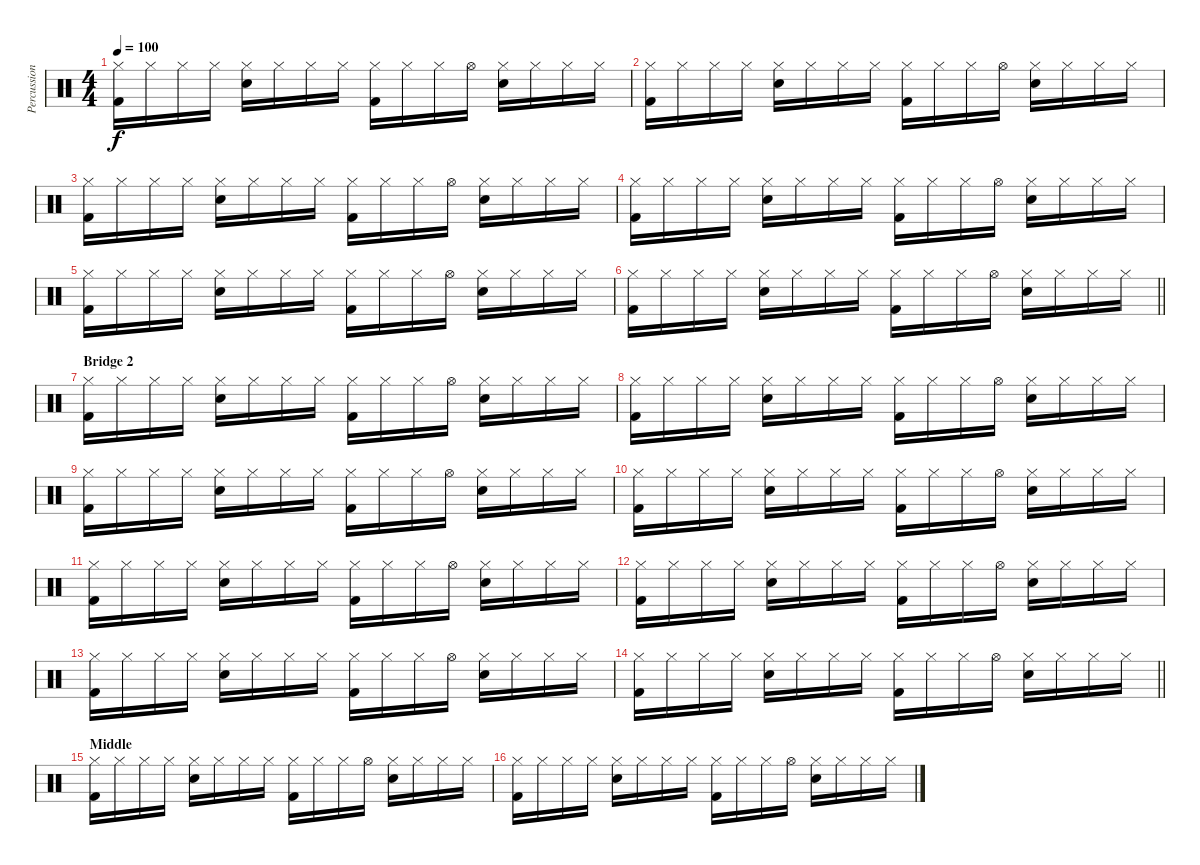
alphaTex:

\track ("Percussion" "Percussion") {instrument percussion}
\staff {score}
\articulation defaults
\ts (4 4)
\tempo 100
\clef neutral
\ks c
("Kick (hit) 2" "Hi-Hat (closed)").16{dy f} "Hi-Hat (closed)".16 "Hi-Hat (closed)".16 "Hi-Hat (closed)".16 ("Electric Snare (hit)" "Hi-Hat (closed)").16 "Hi-Hat (closed)".16 "Hi-Hat (closed)".16 "Hi-Hat (closed)".16 ("Kick (hit) 2" "Hi-Hat (closed)").16 "Hi-Hat (closed)".16 "Hi-Hat (closed)".16 "Hi-Hat (open)".16 ("Hi-Hat (closed)" "Electric Snare (hit)").16 "Hi-Hat (closed)".16 "Hi-Hat (closed)".16 "Hi-Hat (closed)".16 |
("Kick (hit) 2" "Hi-Hat (closed)").16 "Hi-Hat (closed)".16 "Hi-Hat (closed)".16 "Hi-Hat (closed)".16 ("Electric Snare (hit)" "Hi-Hat (closed)").16 "Hi-Hat (closed)".16 "Hi-Hat (closed)".16 "Hi-Hat (closed)".16 ("Kick (hit) 2" "Hi-Hat (closed)").16 "Hi-Hat (closed)".16 "Hi-Hat (closed)".16 "Hi-Hat (open)".16 ("Hi-Hat (closed)" "Electric Snare (hit)").16 "Hi-Hat (closed)".16 "Hi-Hat (closed)".16 "Hi-Hat (closed)".16 |
("Kick (hit) 2" "Hi-Hat (closed)").16 "Hi-Hat (closed)".16 "Hi-Hat (closed)".16 "Hi-Hat (closed)".16 ("Electric Snare (hit)" "Hi-Hat (closed)").16 "Hi-Hat (closed)".16 "Hi-Hat (closed)".16 "Hi-Hat (closed)".16 ("Kick (hit) 2" "Hi-Hat (closed)").16 "Hi-Hat (closed)".16 "Hi-Hat (closed)".16 "Hi-Hat (open)".16 ("Hi-Hat (closed)" "Electric Snare (hit)").16 "Hi-Hat (closed)".16 "Hi-Hat (closed)".16 "Hi-Hat (closed)".16 |
("Kick (hit) 2" "Hi-Hat (closed)").16 "Hi-Hat (closed)".16 "Hi-Hat (closed)".16 "Hi-Hat (closed)".16 ("Electric Snare (hit)" "Hi-Hat (closed)").16 "Hi-Hat (closed)".16 "Hi-Hat (closed)".16 "Hi-Hat (closed)".16 ("Kick (hit) 2" "Hi-Hat (closed)").16 "Hi-Hat (closed)".16 "Hi-Hat (closed)".16 "Hi-Hat (open)".16 ("Hi-Hat (closed)" "Electric Snare (hit)").16 "Hi-Hat (closed)".16 "Hi-Hat (closed)".16 "Hi-Hat (closed)".16 |
("Kick (hit) 2" "Hi-Hat (closed)").16 "Hi-Hat (closed)".16 "Hi-Hat (closed)".16 "Hi-Hat (closed)".16 ("Electric Snare (hit)" "Hi-Hat (closed)").16 "Hi-Hat (closed)".16 "Hi-Hat (closed)".16 "Hi-Hat (closed)".16 ("Kick (hit) 2" "Hi-Hat (closed)").16 "Hi-Hat (closed)".16 "Hi-Hat (closed)".16 "Hi-Hat (open)".16 ("Hi-Hat (closed)" "Electric Snare (hit)").16 "Hi-Hat (closed)".16 "Hi-Hat (closed)".16 "Hi-Hat (closed)".16 |
\barLineRight lightlight
("Kick (hit) 2" "Hi-Hat (closed)").16 "Hi-Hat (closed)".16 "Hi-Hat (closed)".16 "Hi-Hat (closed)".16 ("Electric Snare (hit)" "Hi-Hat (closed)").16 "Hi-Hat (closed)".16 "Hi-Hat (closed)".16 "Hi-Hat (closed)".16 ("Kick (hit) 2" "Hi-Hat (closed)").16 "Hi-Hat (closed)".16 "Hi-Hat (closed)".16 "Hi-Hat (open)".16 ("Hi-Hat (closed)" "Electric Snare (hit)").16 "Hi-Hat (closed)".16 "Hi-Hat (closed)".16 "Hi-Hat (closed)".16 |
\section ("" "Bridge 2")
("Kick (hit) 2" "Hi-Hat (closed)").16 "Hi-Hat (closed)".16 "Hi-Hat (closed)".16 "Hi-Hat (closed)".16 ("Electric Snare (hit)" "Hi-Hat (closed)").16 "Hi-Hat (closed)".16 "Hi-Hat (closed)".16 "Hi-Hat (closed)".16 ("Kick (hit) 2" "Hi-Hat (closed)").16 "Hi-Hat (closed)".16 "Hi-Hat (closed)".16 "Hi-Hat (open)".16 ("Hi-Hat (closed)" "Electric Snare (hit)").16 "Hi-Hat (closed)".16 "Hi-Hat (closed)".16 "Hi-Hat (closed)".16 |
("Kick (hit) 2" "Hi-Hat (closed)").16 "Hi-Hat (closed)".16 "Hi-Hat (closed)".16 "Hi-Hat (closed)".16 ("Electric Snare (hit)" "Hi-Hat (closed)").16 "Hi-Hat (closed)".16 "Hi-Hat (closed)".16 "Hi-Hat (closed)".16 ("Kick (hit) 2" "Hi-Hat (closed)").16 "Hi-Hat (closed)".16 "Hi-Hat (closed)".16 "Hi-Hat (open)".16 ("Hi-Hat (closed)" "Electric Snare (hit)").16 "Hi-Hat (closed)".16 "Hi-Hat (closed)".16 "Hi-Hat (closed)".16 |
("Kick (hit) 2" "Hi-Hat (closed)").16 "Hi-Hat (closed)".16 "Hi-Hat (closed)".16 "Hi-Hat (closed)".16 ("Electric Snare (hit)" "Hi-Hat (closed)").16 "Hi-Hat (closed)".16 "Hi-Hat (closed)".16 "Hi-Hat (closed)".16 ("Kick (hit) 2" "Hi-Hat (closed)").16 "Hi-Hat (closed)".16 "Hi-Hat (closed)".16 "Hi-Hat (open)".16 ("Hi-Hat (closed)" "Electric Snare (hit)").16 "Hi-Hat (closed)".16 "Hi-Hat (closed)".16 "Hi-Hat (closed)".16 |
("Kick (hit) 2" "Hi-Hat (closed)").16 "Hi-Hat (closed)".16 "Hi-Hat (closed)".16 "Hi-Hat (closed)".16 ("Electric Snare (hit)" "Hi-Hat (closed)").16 "Hi-Hat (closed)".16 "Hi-Hat (closed)".16 "Hi-Hat (closed)".16 ("Kick (hit) 2" "Hi-Hat (closed)").16 "Hi-Hat (closed)".16 "Hi-Hat (closed)".16 "Hi-Hat (open)".16 ("Hi-Hat (closed)" "Electric Snare (hit)").16 "Hi-Hat (closed)".16 "Hi-Hat (closed)".16 "Hi-Hat (closed)".16 |
("Kick (hit) 2" "Hi-Hat (closed)").16 "Hi-Hat (closed)".16 "Hi-Hat (closed)".16 "Hi-Hat (closed)".16 ("Electric Snare (hit)" "Hi-Hat (closed)").16 "Hi-Hat (closed)".16 "Hi-Hat (closed)".16 "Hi-Hat (closed)".16 ("Kick (hit) 2" "Hi-Hat (closed)").16 "Hi-Hat (closed)".16 "Hi-Hat (closed)".16 "Hi-Hat (open)".16 ("Hi-Hat (closed)" "Electric Snare (hit)").16 "Hi-Hat (closed)".16 "Hi-Hat (closed)".16 "Hi-Hat (closed)".16 |
("Kick (hit) 2" "Hi-Hat (closed)").16 "Hi-Hat (closed)".16 "Hi-Hat (closed)".16 "Hi-Hat (closed)".16 ("Electric Snare (hit)" "Hi-Hat (closed)").16 "Hi-Hat (closed)".16 "Hi-Hat (closed)".16 "Hi-Hat (closed)".16 ("Kick (hit) 2" "Hi-Hat (closed)").16 "Hi-Hat (closed)".16 "Hi-Hat (closed)".16 "Hi-Hat (open)".16 ("Hi-Hat (closed)" "Electric Snare (hit)").16 "Hi-Hat (closed)".16 "Hi-Hat (closed)".16 "Hi-Hat (closed)".16 |
("Kick (hit) 2" "Hi-Hat (closed)").16 "Hi-Hat (closed)".16 "Hi-Hat (closed)".16 "Hi-Hat (closed)".16 ("Electric Snare (hit)" "Hi-Hat (closed)").16 "Hi-Hat (closed)".16 "Hi-Hat (closed)".16 "Hi-Hat (closed)".16 ("Kick (hit) 2" "Hi-Hat (closed)").16 "Hi-Hat (closed)".16 "Hi-Hat (closed)".16 "Hi-Hat (open)".16 ("Hi-Hat (closed)" "Electric Snare (hit)").16 "Hi-Hat (closed)".16 "Hi-Hat (closed)".16 "Hi-Hat (closed)".16 |
\barLineRight lightlight
("Kick (hit) 2" "Hi-Hat (closed)").16 "Hi-Hat (closed)".16 "Hi-Hat (closed)".16 "Hi-Hat (closed)".16 ("Electric Snare (hit)" "Hi-Hat (closed)").16 "Hi-Hat (closed)".16 "Hi-Hat (closed)".16 "Hi-Hat (closed)".16 ("Kick (hit) 2" "Hi-Hat (closed)").16 "Hi-Hat (closed)".16 "Hi-Hat (closed)".16 "Hi-Hat (open)".16 ("Hi-Hat (closed)" "Electric Snare (hit)").16 "Hi-Hat (closed)".16 "Hi-Hat (closed)".16 "Hi-Hat (closed)".16 |
\section ("" "Middle")
("Kick (hit) 2" "Hi-Hat (closed)").16 "Hi-Hat (closed)".16 "Hi-Hat (closed)".16 "Hi-Hat (closed)".16 ("Electric Snare (hit)" "Hi-Hat (closed)").16 "Hi-Hat (closed)".16 "Hi-Hat (closed)".16 "Hi-Hat (closed)".16 ("Kick (hit) 2" "Hi-Hat (closed)").16 "Hi-Hat (closed)".16 "Hi-Hat (closed)".16 "Hi-Hat (open)".16 ("Hi-Hat (closed)" "Electric Snare (hit)").16 "Hi-Hat (closed)".16 "Hi-Hat (closed)".16 "Hi-Hat (closed)".16 |
("Kick (hit) 2" "Hi-Hat (closed)").16 "Hi-Hat (closed)".16 "Hi-Hat (closed)".16 "Hi-Hat (closed)".16 ("Electric Snare (hit)" "Hi-Hat (closed)").16 "Hi-Hat (closed)".16 "Hi-Hat (closed)".16 "Hi-Hat (closed)".16 ("Kick (hit) 2" "Hi-Hat (closed)").16 "Hi-Hat (closed)".16 "Hi-Hat (closed)".16 "Hi-Hat (open)".16 ("Hi-Hat (closed)" "Electric Snare (hit)").16 "Hi-Hat (closed)".16 "Hi-Hat (closed)".16 "Hi-Hat (closed)".16
